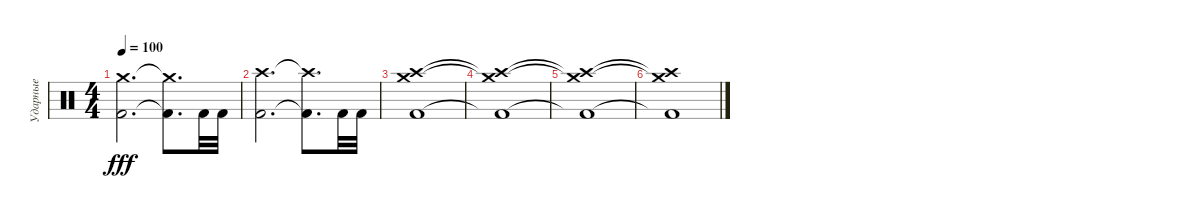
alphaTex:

\track ("Ударные" "Ударные") {instrument percussion}
\staff {score}
\articulation defaults
\ts (4 4)
\tempo 100
\clef neutral
\ks c
("Crash medium (hit)" "Kick (hit) 2").2{d dy fff} ("Crash medium (hit)"{t} "Kick (hit) 2"{t}).8{d} "Kick (hit) 2".32 "Kick (hit) 2".32 |
("Crash high (hit)" "Kick (hit) 2").2{d} ("Crash high (hit)"{t} "Kick (hit) 2"{t}).8{d} "Kick (hit) 2".32 "Kick (hit) 2".32 |
("Crash medium (hit)" "Crash high (hit)" "Kick (hit) 2").1 |
("Crash medium (hit)"{t} "Crash high (hit)"{t} "Kick (hit) 2"{t}).1 |
("Crash medium (hit)"{t} "Crash high (hit)"{t} "Kick (hit) 2"{t}).1 |
("Crash medium (hit)"{t} "Crash high (hit)"{t} "Kick (hit) 2"{t}).1
